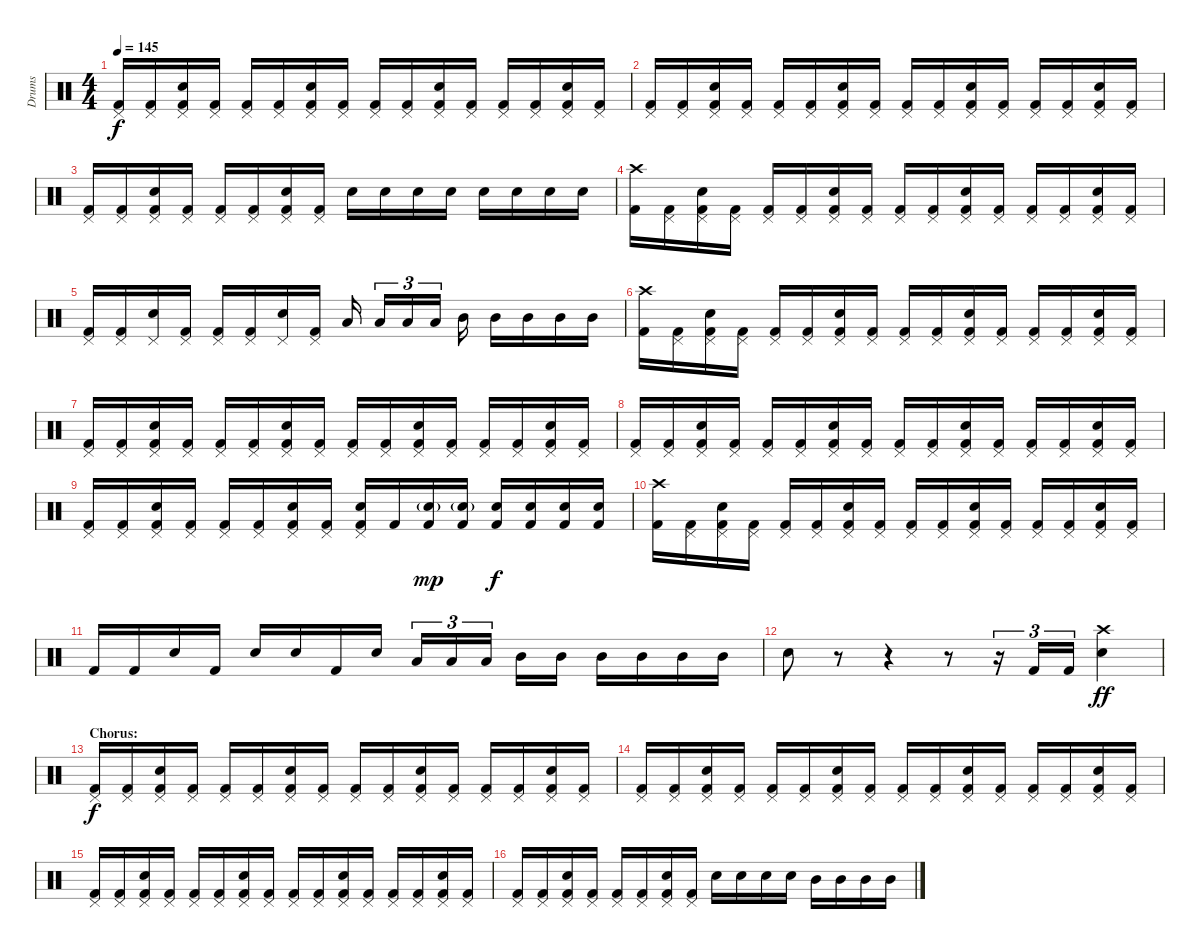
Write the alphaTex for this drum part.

\track ("Drums" "Drums") {instrument percussion}
\staff {score}
\articulation defaults
\ts (4 4)
\tempo 145
\clef neutral
\ks c
("Pedal Hi-Hat (hit)" "Kick (hit) 2").16{dy f} ("Pedal Hi-Hat (hit)" "Kick (hit) 2").16 ("Pedal Hi-Hat (hit)" "Electric Snare (hit)" "Kick (hit) 2").16 ("Pedal Hi-Hat (hit)" "Kick (hit) 2").16 ("Pedal Hi-Hat (hit)" "Kick (hit) 2").16 ("Pedal Hi-Hat (hit)" "Kick (hit) 2").16 ("Pedal Hi-Hat (hit)" "Electric Snare (hit)" "Kick (hit) 2").16 ("Pedal Hi-Hat (hit)" "Kick (hit) 2").16 ("Pedal Hi-Hat (hit)" "Kick (hit) 2").16 ("Pedal Hi-Hat (hit)" "Kick (hit) 2").16 ("Pedal Hi-Hat (hit)" "Electric Snare (hit)" "Kick (hit) 2").16 ("Pedal Hi-Hat (hit)" "Kick (hit) 2").16 ("Pedal Hi-Hat (hit)" "Kick (hit) 2").16 ("Pedal Hi-Hat (hit)" "Kick (hit) 2").16 ("Pedal Hi-Hat (hit)" "Electric Snare (hit)" "Kick (hit) 2").16 ("Pedal Hi-Hat (hit)" "Kick (hit) 2").16 |
("Pedal Hi-Hat (hit)" "Kick (hit) 2").16 ("Pedal Hi-Hat (hit)" "Kick (hit) 2").16 ("Pedal Hi-Hat (hit)" "Electric Snare (hit)" "Kick (hit) 2").16 ("Pedal Hi-Hat (hit)" "Kick (hit) 2").16 ("Pedal Hi-Hat (hit)" "Kick (hit) 2").16 ("Pedal Hi-Hat (hit)" "Kick (hit) 2").16 ("Pedal Hi-Hat (hit)" "Electric Snare (hit)" "Kick (hit) 2").16 ("Pedal Hi-Hat (hit)" "Kick (hit) 2").16 ("Pedal Hi-Hat (hit)" "Kick (hit) 2").16 ("Pedal Hi-Hat (hit)" "Kick (hit) 2").16 ("Pedal Hi-Hat (hit)" "Electric Snare (hit)" "Kick (hit) 2").16 ("Pedal Hi-Hat (hit)" "Kick (hit) 2").16 ("Pedal Hi-Hat (hit)" "Kick (hit) 2").16 ("Pedal Hi-Hat (hit)" "Kick (hit) 2").16 ("Pedal Hi-Hat (hit)" "Electric Snare (hit)" "Kick (hit) 2").16 ("Pedal Hi-Hat (hit)" "Kick (hit) 2").16 |
("Pedal Hi-Hat (hit)" "Kick (hit) 2").16 ("Pedal Hi-Hat (hit)" "Kick (hit) 2").16 ("Pedal Hi-Hat (hit)" "Electric Snare (hit)" "Kick (hit) 2").16 ("Pedal Hi-Hat (hit)" "Kick (hit) 2").16 ("Pedal Hi-Hat (hit)" "Kick (hit) 2").16 ("Pedal Hi-Hat (hit)" "Kick (hit) 2").16 ("Pedal Hi-Hat (hit)" "Electric Snare (hit)" "Kick (hit) 2").16 ("Pedal Hi-Hat (hit)" "Kick (hit) 2").16 "Electric Snare (hit)".16 "Electric Snare (hit)".16 "Electric Snare (hit)".16 "Electric Snare (hit)".16 "Electric Snare (hit)".16 "Electric Snare (hit)".16 "Electric Snare (hit)".16 "Electric Snare (hit)".16 |
("Crash high (hit)" "Kick (hit) 2").16 ("Pedal Hi-Hat (hit)" "Kick (hit) 2").16 ("Pedal Hi-Hat (hit)" "Electric Snare (hit)" "Kick (hit) 2").16 ("Pedal Hi-Hat (hit)" "Kick (hit) 2").16 ("Pedal Hi-Hat (hit)" "Kick (hit) 2").16 ("Pedal Hi-Hat (hit)" "Kick (hit) 2").16 ("Pedal Hi-Hat (hit)" "Electric Snare (hit)" "Kick (hit) 2").16 ("Pedal Hi-Hat (hit)" "Kick (hit) 2").16 ("Pedal Hi-Hat (hit)" "Kick (hit) 2").16 ("Pedal Hi-Hat (hit)" "Kick (hit) 2").16 ("Pedal Hi-Hat (hit)" "Electric Snare (hit)" "Kick (hit) 2").16 ("Pedal Hi-Hat (hit)" "Kick (hit) 2").16 ("Pedal Hi-Hat (hit)" "Kick (hit) 2").16 ("Pedal Hi-Hat (hit)" "Kick (hit) 2").16 ("Pedal Hi-Hat (hit)" "Electric Snare (hit)" "Kick (hit) 2").16 ("Pedal Hi-Hat (hit)" "Kick (hit) 2").16 |
("Pedal Hi-Hat (hit)" "Kick (hit) 2").16 ("Pedal Hi-Hat (hit)" "Kick (hit) 2").16 ("Pedal Hi-Hat (hit)" "Electric Snare (hit)").16 ("Pedal Hi-Hat (hit)" "Kick (hit) 2").16 ("Pedal Hi-Hat (hit)" "Kick (hit) 2").16 ("Pedal Hi-Hat (hit)" "Kick (hit) 2").16 ("Pedal Hi-Hat (hit)" "Electric Snare (hit)").16 ("Pedal Hi-Hat (hit)" "Kick (hit) 2").16 "Low Tom (hit)".16 "Low Tom (hit)".16{tu (3 2)} "Low Tom (hit)".16{tu (3 2)} "Low Tom (hit)".16{tu (3 2)} "Mid Tom (hit)".16 "Mid Tom (hit)".16 "Mid Tom (hit)".16 "Mid Tom (hit)".16 "Mid Tom (hit)".16 |
("Crash high (hit)" "Kick (hit) 2").16 ("Pedal Hi-Hat (hit)" "Kick (hit) 2").16 ("Pedal Hi-Hat (hit)" "Electric Snare (hit)" "Kick (hit) 2").16 ("Pedal Hi-Hat (hit)" "Kick (hit) 2").16 ("Pedal Hi-Hat (hit)" "Kick (hit) 2").16 ("Pedal Hi-Hat (hit)" "Kick (hit) 2").16 ("Pedal Hi-Hat (hit)" "Electric Snare (hit)" "Kick (hit) 2").16 ("Pedal Hi-Hat (hit)" "Kick (hit) 2").16 ("Pedal Hi-Hat (hit)" "Kick (hit) 2").16 ("Pedal Hi-Hat (hit)" "Kick (hit) 2").16 ("Pedal Hi-Hat (hit)" "Electric Snare (hit)" "Kick (hit) 2").16 ("Pedal Hi-Hat (hit)" "Kick (hit) 2").16 ("Pedal Hi-Hat (hit)" "Kick (hit) 2").16 ("Pedal Hi-Hat (hit)" "Kick (hit) 2").16 ("Pedal Hi-Hat (hit)" "Electric Snare (hit)" "Kick (hit) 2").16 ("Pedal Hi-Hat (hit)" "Kick (hit) 2").16 |
("Pedal Hi-Hat (hit)" "Kick (hit) 2").16 ("Pedal Hi-Hat (hit)" "Kick (hit) 2").16 ("Pedal Hi-Hat (hit)" "Electric Snare (hit)" "Kick (hit) 2").16 ("Pedal Hi-Hat (hit)" "Kick (hit) 2").16 ("Pedal Hi-Hat (hit)" "Kick (hit) 2").16 ("Pedal Hi-Hat (hit)" "Kick (hit) 2").16 ("Pedal Hi-Hat (hit)" "Electric Snare (hit)" "Kick (hit) 2").16 ("Pedal Hi-Hat (hit)" "Kick (hit) 2").16 ("Pedal Hi-Hat (hit)" "Kick (hit) 2").16 ("Pedal Hi-Hat (hit)" "Kick (hit) 2").16 ("Pedal Hi-Hat (hit)" "Electric Snare (hit)" "Kick (hit) 2").16 ("Pedal Hi-Hat (hit)" "Kick (hit) 2").16 ("Pedal Hi-Hat (hit)" "Kick (hit) 2").16 ("Pedal Hi-Hat (hit)" "Kick (hit) 2").16 ("Pedal Hi-Hat (hit)" "Electric Snare (hit)" "Kick (hit) 2").16 ("Pedal Hi-Hat (hit)" "Kick (hit) 2").16 |
("Pedal Hi-Hat (hit)" "Kick (hit) 2").16 ("Pedal Hi-Hat (hit)" "Kick (hit) 2").16 ("Pedal Hi-Hat (hit)" "Electric Snare (hit)" "Kick (hit) 2").16 ("Pedal Hi-Hat (hit)" "Kick (hit) 2").16 ("Pedal Hi-Hat (hit)" "Kick (hit) 2").16 ("Pedal Hi-Hat (hit)" "Kick (hit) 2").16 ("Pedal Hi-Hat (hit)" "Electric Snare (hit)" "Kick (hit) 2").16 ("Pedal Hi-Hat (hit)" "Kick (hit) 2").16 ("Pedal Hi-Hat (hit)" "Kick (hit) 2").16 ("Pedal Hi-Hat (hit)" "Kick (hit) 2").16 ("Pedal Hi-Hat (hit)" "Electric Snare (hit)" "Kick (hit) 2").16 ("Pedal Hi-Hat (hit)" "Kick (hit) 2").16 ("Pedal Hi-Hat (hit)" "Kick (hit) 2").16 ("Pedal Hi-Hat (hit)" "Kick (hit) 2").16 ("Pedal Hi-Hat (hit)" "Electric Snare (hit)" "Kick (hit) 2").16 ("Pedal Hi-Hat (hit)" "Kick (hit) 2").16 |
("Pedal Hi-Hat (hit)" "Kick (hit) 2").16 ("Pedal Hi-Hat (hit)" "Kick (hit) 2").16 ("Pedal Hi-Hat (hit)" "Electric Snare (hit)" "Kick (hit) 2").16 ("Pedal Hi-Hat (hit)" "Kick (hit) 2").16 ("Pedal Hi-Hat (hit)" "Kick (hit) 2").16 ("Pedal Hi-Hat (hit)" "Kick (hit) 2").16 ("Pedal Hi-Hat (hit)" "Electric Snare (hit)" "Kick (hit) 2").16 ("Pedal Hi-Hat (hit)" "Kick (hit) 2").16 ("Pedal Hi-Hat (hit)" "Electric Snare (hit)" "Kick (hit) 2").16 "Kick (hit) 2".16 ("Electric Snare (hit)"{g} "Kick (hit) 2").16{dy mp} ("Electric Snare (hit)"{g} "Kick (hit) 2").16 ("Electric Snare (hit)" "Kick (hit) 2").16{dy f} ("Electric Snare (hit)" "Kick (hit) 2").16 ("Electric Snare (hit)" "Kick (hit) 2").16 ("Electric Snare (hit)" "Kick (hit) 2").16 |
("Crash high (hit)" "Kick (hit) 2").16 ("Pedal Hi-Hat (hit)" "Kick (hit) 2").16 ("Pedal Hi-Hat (hit)" "Electric Snare (hit)" "Kick (hit) 2").16 ("Pedal Hi-Hat (hit)" "Kick (hit) 2").16 ("Pedal Hi-Hat (hit)" "Kick (hit) 2").16 ("Pedal Hi-Hat (hit)" "Kick (hit) 2").16 ("Pedal Hi-Hat (hit)" "Electric Snare (hit)" "Kick (hit) 2").16 ("Pedal Hi-Hat (hit)" "Kick (hit) 2").16 ("Pedal Hi-Hat (hit)" "Kick (hit) 2").16 ("Pedal Hi-Hat (hit)" "Kick (hit) 2").16 ("Pedal Hi-Hat (hit)" "Electric Snare (hit)" "Kick (hit) 2").16 ("Pedal Hi-Hat (hit)" "Kick (hit) 2").16 ("Pedal Hi-Hat (hit)" "Kick (hit) 2").16 ("Pedal Hi-Hat (hit)" "Kick (hit) 2").16 ("Pedal Hi-Hat (hit)" "Electric Snare (hit)" "Kick (hit) 2").16 ("Pedal Hi-Hat (hit)" "Kick (hit) 2").16 |
"Kick (hit) 2".16 "Kick (hit) 2".16 "Electric Snare (hit)".16 "Kick (hit) 2".16 "Electric Snare (hit)".16 "Electric Snare (hit)".16 "Kick (hit) 2".16 "Electric Snare (hit)".16 "Low Tom (hit)".16{tu (3 2)} "Low Tom (hit)".16{tu (3 2)} "Low Tom (hit)".16{tu (3 2)} "Mid Tom (hit)".16 "Mid Tom (hit)".16 "Mid Tom (hit)".16 "Mid Tom (hit)".16 "Mid Tom (hit)".16 "Mid Tom (hit)".16 |
"Electric Snare (hit)".8 r.8 r.4 r.8 r.16{tu (3 2)} "Kick (hit) 2".16{tu (3 2)} "Kick (hit) 2".16{tu (3 2)} ("Crash high (hit)" "Electric Snare (hit)").4{dy ff} |
\section ("" "Chorus:")
("Pedal Hi-Hat (hit)" "Kick (hit) 2").16{dy f} ("Pedal Hi-Hat (hit)" "Kick (hit) 2").16 ("Pedal Hi-Hat (hit)" "Electric Snare (hit)" "Kick (hit) 2").16 ("Pedal Hi-Hat (hit)" "Kick (hit) 2").16 ("Pedal Hi-Hat (hit)" "Kick (hit) 2").16 ("Pedal Hi-Hat (hit)" "Kick (hit) 2").16 ("Pedal Hi-Hat (hit)" "Electric Snare (hit)" "Kick (hit) 2").16 ("Pedal Hi-Hat (hit)" "Kick (hit) 2").16 ("Pedal Hi-Hat (hit)" "Kick (hit) 2").16 ("Pedal Hi-Hat (hit)" "Kick (hit) 2").16 ("Pedal Hi-Hat (hit)" "Electric Snare (hit)" "Kick (hit) 2").16 ("Pedal Hi-Hat (hit)" "Kick (hit) 2").16 ("Pedal Hi-Hat (hit)" "Kick (hit) 2").16 ("Pedal Hi-Hat (hit)" "Kick (hit) 2").16 ("Pedal Hi-Hat (hit)" "Electric Snare (hit)" "Kick (hit) 2").16 ("Pedal Hi-Hat (hit)" "Kick (hit) 2").16 |
("Pedal Hi-Hat (hit)" "Kick (hit) 2").16 ("Pedal Hi-Hat (hit)" "Kick (hit) 2").16 ("Pedal Hi-Hat (hit)" "Electric Snare (hit)" "Kick (hit) 2").16 ("Pedal Hi-Hat (hit)" "Kick (hit) 2").16 ("Pedal Hi-Hat (hit)" "Kick (hit) 2").16 ("Pedal Hi-Hat (hit)" "Kick (hit) 2").16 ("Pedal Hi-Hat (hit)" "Electric Snare (hit)" "Kick (hit) 2").16 ("Pedal Hi-Hat (hit)" "Kick (hit) 2").16 ("Pedal Hi-Hat (hit)" "Kick (hit) 2").16 ("Pedal Hi-Hat (hit)" "Kick (hit) 2").16 ("Pedal Hi-Hat (hit)" "Electric Snare (hit)" "Kick (hit) 2").16 ("Pedal Hi-Hat (hit)" "Kick (hit) 2").16 ("Pedal Hi-Hat (hit)" "Kick (hit) 2").16 ("Pedal Hi-Hat (hit)" "Kick (hit) 2").16 ("Pedal Hi-Hat (hit)" "Electric Snare (hit)" "Kick (hit) 2").16 ("Pedal Hi-Hat (hit)" "Kick (hit) 2").16 |
("Pedal Hi-Hat (hit)" "Kick (hit) 2").16 ("Pedal Hi-Hat (hit)" "Kick (hit) 2").16 ("Pedal Hi-Hat (hit)" "Electric Snare (hit)" "Kick (hit) 2").16 ("Pedal Hi-Hat (hit)" "Kick (hit) 2").16 ("Pedal Hi-Hat (hit)" "Kick (hit) 2").16 ("Pedal Hi-Hat (hit)" "Kick (hit) 2").16 ("Pedal Hi-Hat (hit)" "Electric Snare (hit)" "Kick (hit) 2").16 ("Pedal Hi-Hat (hit)" "Kick (hit) 2").16 ("Pedal Hi-Hat (hit)" "Kick (hit) 2").16 ("Pedal Hi-Hat (hit)" "Kick (hit) 2").16 ("Pedal Hi-Hat (hit)" "Electric Snare (hit)" "Kick (hit) 2").16 ("Pedal Hi-Hat (hit)" "Kick (hit) 2").16 ("Pedal Hi-Hat (hit)" "Kick (hit) 2").16 ("Pedal Hi-Hat (hit)" "Kick (hit) 2").16 ("Pedal Hi-Hat (hit)" "Electric Snare (hit)" "Kick (hit) 2").16 ("Pedal Hi-Hat (hit)" "Kick (hit) 2").16 |
("Pedal Hi-Hat (hit)" "Kick (hit) 2").16 ("Pedal Hi-Hat (hit)" "Kick (hit) 2").16 ("Pedal Hi-Hat (hit)" "Electric Snare (hit)" "Kick (hit) 2").16 ("Pedal Hi-Hat (hit)" "Kick (hit) 2").16 ("Pedal Hi-Hat (hit)" "Kick (hit) 2").16 ("Pedal Hi-Hat (hit)" "Kick (hit) 2").16 ("Pedal Hi-Hat (hit)" "Electric Snare (hit)" "Kick (hit) 2").16 ("Pedal Hi-Hat (hit)" "Kick (hit) 2").16 "Electric Snare (hit)".16 "Electric Snare (hit)".16 "Electric Snare (hit)".16 "Electric Snare (hit)".16 "Mid Tom (hit)".16 "Mid Tom (hit)".16 "Mid Tom (hit)".16 "Mid Tom (hit)".16
